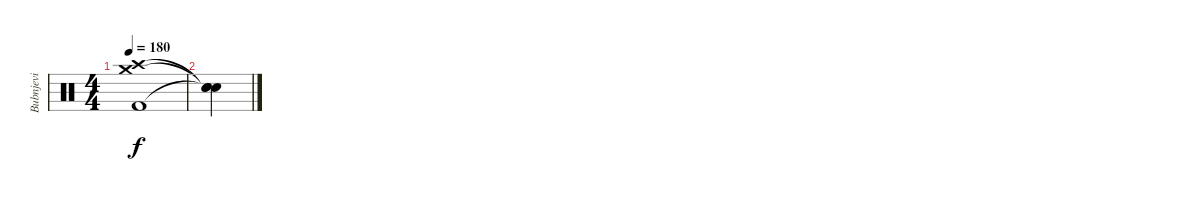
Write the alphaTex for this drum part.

\track ("Bubnjevi" "Bubnjevi") {instrument percussion}
\staff {score}
\articulation defaults
\ts (4 4)
\tempo 180
\clef neutral
\ks c
("Crash medium (hit)" "Crash high (hit)" "Kick (hit) 2").1{dy f} |
("Snare (hit)"{t} "Snare (hit)"{t} "Snare (hit)"{t}).4
